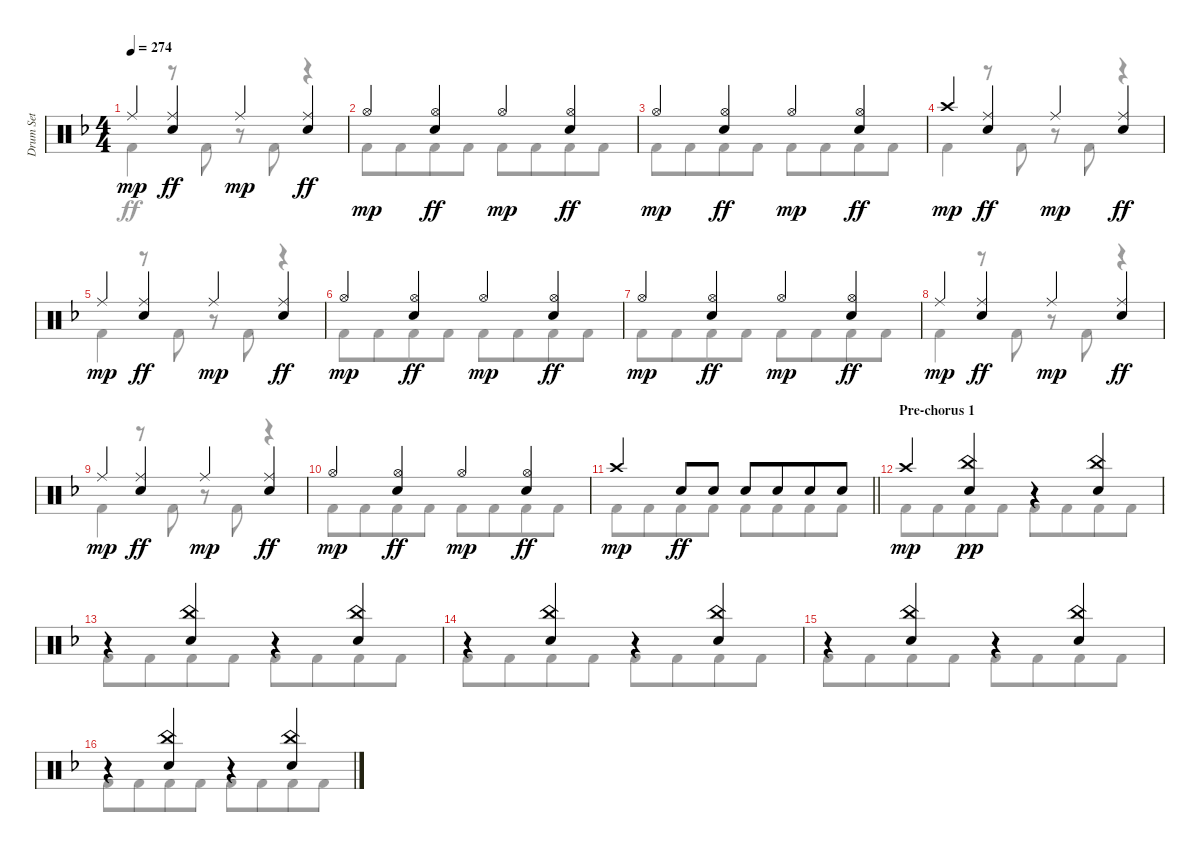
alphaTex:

\track ("Drum Set" "Drum Set") {instrument percussion}
\staff {score}
\articulation defaults
\voice
\ts (4 4)
\tempo 274
\clef neutral
\ks dminor "Ride (middle)".4{dy mp}
("Ride (middle)" "Electric Snare (hit)").4{dy ff} "Ride (middle)".4{dy mp} ("Ride (middle)" "Electric Snare (hit)").4{dy ff} |
"Hi-Hat (open)".4{dy mp} ("Hi-Hat (open)" "Electric Snare (hit)").4{dy ff} "Hi-Hat (open)".4{dy mp} ("Hi-Hat (open)" "Electric Snare (hit)").4{dy ff} |
"Hi-Hat (open)".4{dy mp} ("Hi-Hat (open)" "Electric Snare (hit)").4{dy ff} "Hi-Hat (open)".4{dy mp} ("Hi-Hat (open)" "Electric Snare (hit)").4{dy ff} |
"Crash high (hit)".4{dy mp} ("Ride (middle)" "Electric Snare (hit)").4{dy ff} "Ride (middle)".4{dy mp} ("Ride (middle)" "Electric Snare (hit)").4{dy ff} |
"Ride (middle)".4{dy mp} ("Ride (middle)" "Electric Snare (hit)").4{dy ff} "Ride (middle)".4{dy mp} ("Ride (middle)" "Electric Snare (hit)").4{dy ff} |
"Hi-Hat (open)".4{dy mp} ("Hi-Hat (open)" "Electric Snare (hit)").4{dy ff} "Hi-Hat (open)".4{dy mp} ("Hi-Hat (open)" "Electric Snare (hit)").4{dy ff} |
"Hi-Hat (open)".4{dy mp} ("Hi-Hat (open)" "Electric Snare (hit)").4{dy ff} "Hi-Hat (open)".4{dy mp} ("Hi-Hat (open)" "Electric Snare (hit)").4{dy ff} |
"Ride (middle)".4{dy mp} ("Ride (middle)" "Electric Snare (hit)").4{dy ff} "Ride (middle)".4{dy mp} ("Ride (middle)" "Electric Snare (hit)").4{dy ff} |
"Ride (middle)".4{dy mp} ("Ride (middle)" "Electric Snare (hit)").4{dy ff} "Ride (middle)".4{dy mp} ("Ride (middle)" "Electric Snare (hit)").4{dy ff} |
"Hi-Hat (open)".4{dy mp} ("Hi-Hat (open)" "Electric Snare (hit)").4{dy ff} "Hi-Hat (open)".4{dy mp} ("Hi-Hat (open)" "Electric Snare (hit)").4{dy ff} |
\barLineRight lightlight "Crash high (hit)".4{dy mp} "Electric Snare (hit)".8{dy ff} "Electric Snare (hit)".8 "Electric Snare (hit)".8 "Electric Snare (hit)".8{beam merge} "Electric Snare (hit)".8 "Electric Snare (hit)".8
|
\section ("" "Pre-chorus 1")
"Crash high (hit)".4{dy mp} ("Electric Snare (hit)" "China (hit)").4{dy pp} r.4 ("Electric Snare (hit)" "China (hit)").4 |
r.4 ("Electric Snare (hit)" "China (hit)").4 r.4 ("Electric Snare (hit)" "China (hit)").4 |
r.4 ("Electric Snare (hit)" "China (hit)").4 r.4 ("Electric Snare (hit)" "China (hit)").4 |
r.4 ("Electric Snare (hit)" "China (hit)").4 r.4 ("Electric Snare (hit)" "China (hit)").4 |
r.4 ("Electric Snare (hit)" "China (hit)").4 r.4 ("Electric Snare (hit)" "China (hit)").4
\voice
\clef neutral
\ottava regular
\simile none
\ks dminor "Kick (hit) 2".4{dy ff}
r.8 "Kick (hit) 2".8 r.8 "Kick (hit) 2".8 r.4 |
"Kick (hit) 2".8 "Kick (hit) 2".8{beam merge} "Kick (hit) 2".8 "Kick (hit) 2".8 "Kick (hit) 2".8 "Kick (hit) 2".8{beam merge} "Kick (hit) 2".8 "Kick (hit) 2".8 |
"Kick (hit) 2".8 "Kick (hit) 2".8{beam merge} "Kick (hit) 2".8 "Kick (hit) 2".8 "Kick (hit) 2".8 "Kick (hit) 2".8{beam merge} "Kick (hit) 2".8 "Kick (hit) 2".8 |
"Kick (hit) 2".4 r.8 "Kick (hit) 2".8 r.8 "Kick (hit) 2".8 r.4 |
"Kick (hit) 2".4 r.8 "Kick (hit) 2".8 r.8 "Kick (hit) 2".8 r.4 |
"Kick (hit) 2".8 "Kick (hit) 2".8{beam merge} "Kick (hit) 2".8 "Kick (hit) 2".8 "Kick (hit) 2".8 "Kick (hit) 2".8{beam merge} "Kick (hit) 2".8 "Kick (hit) 2".8 |
"Kick (hit) 2".8 "Kick (hit) 2".8{beam merge} "Kick (hit) 2".8 "Kick (hit) 2".8 "Kick (hit) 2".8 "Kick (hit) 2".8{beam merge} "Kick (hit) 2".8 "Kick (hit) 2".8 |
"Kick (hit) 2".4 r.8 "Kick (hit) 2".8 r.8 "Kick (hit) 2".8 r.4 |
"Kick (hit) 2".4 r.8 "Kick (hit) 2".8 r.8 "Kick (hit) 2".8 r.4 |
"Kick (hit) 2".8 "Kick (hit) 2".8{beam merge} "Kick (hit) 2".8 "Kick (hit) 2".8 "Kick (hit) 2".8 "Kick (hit) 2".8{beam merge} "Kick (hit) 2".8 "Kick (hit) 2".8 |
\barLineRight lightlight "Kick (hit) 2".8 "Kick (hit) 2".8{beam merge} "Kick (hit) 2".8 "Kick (hit) 2".8 "Kick (hit) 2".8 "Kick (hit) 2".8{beam merge} "Kick (hit) 2".8 "Kick (hit) 2".8
|
"Kick (hit) 2".8 "Kick (hit) 2".8{beam merge} "Kick (hit) 2".8 "Kick (hit) 2".8 "Kick (hit) 2".8 "Kick (hit) 2".8{beam merge} "Kick (hit) 2".8 "Kick (hit) 2".8 |
"Kick (hit) 2".8 "Kick (hit) 2".8{beam merge} "Kick (hit) 2".8 "Kick (hit) 2".8 "Kick (hit) 2".8 "Kick (hit) 2".8{beam merge} "Kick (hit) 2".8 "Kick (hit) 2".8 |
"Kick (hit) 2".8 "Kick (hit) 2".8{beam merge} "Kick (hit) 2".8 "Kick (hit) 2".8 "Kick (hit) 2".8 "Kick (hit) 2".8{beam merge} "Kick (hit) 2".8 "Kick (hit) 2".8 |
"Kick (hit) 2".8 "Kick (hit) 2".8{beam merge} "Kick (hit) 2".8 "Kick (hit) 2".8 "Kick (hit) 2".8 "Kick (hit) 2".8{beam merge} "Kick (hit) 2".8 "Kick (hit) 2".8 |
"Kick (hit) 2".8 "Kick (hit) 2".8{beam merge} "Kick (hit) 2".8 "Kick (hit) 2".8 "Kick (hit) 2".8 "Kick (hit) 2".8{beam merge} "Kick (hit) 2".8 "Kick (hit) 2".8
